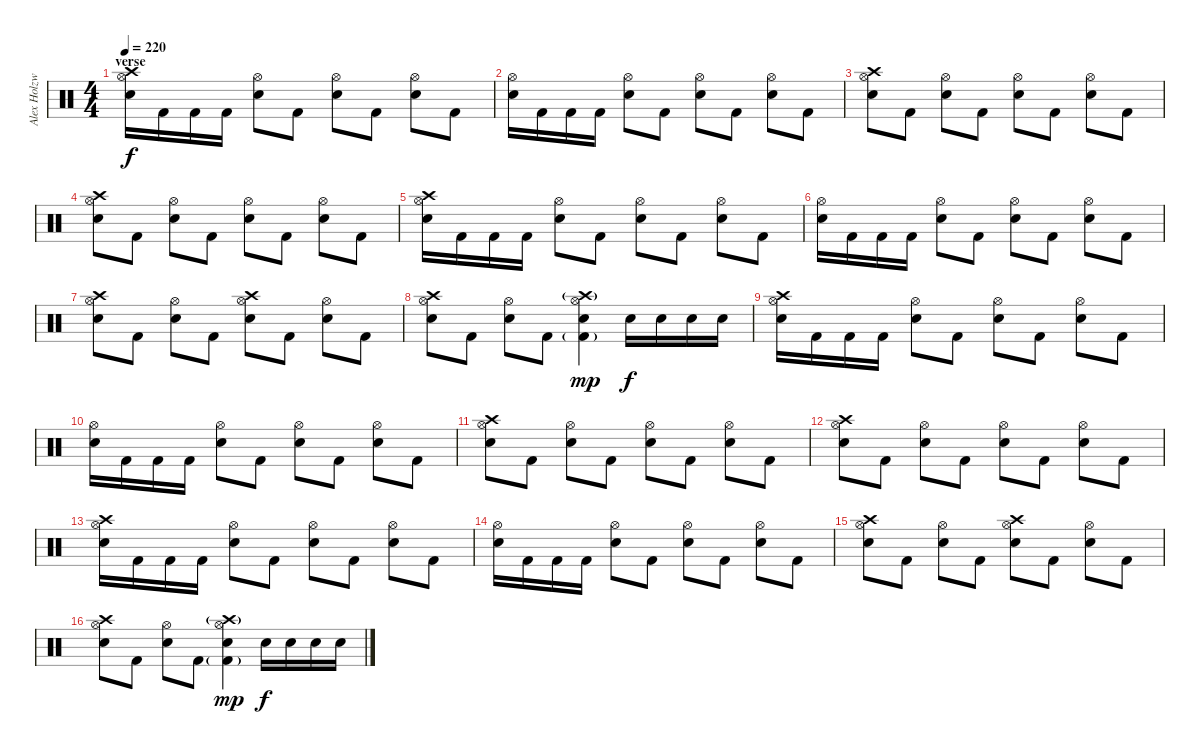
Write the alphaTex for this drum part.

\track ("Alex Holzwarth" "Alex Holzw") {instrument percussion}
\staff {score}
\articulation defaults
\ts (4 4)
\section ("" "verse")
\tempo 220
\clef neutral
\ks c
("Crash high (hit)" "Hi-Hat (open)" "Electric Snare (hit)").16{dy f} "Kick (hit) 2".16 "Kick (hit) 2".16 "Kick (hit) 2".16 ("Hi-Hat (open)" "Electric Snare (hit)").8 "Kick (hit) 2".8 ("Hi-Hat (open)" "Electric Snare (hit)").8 "Kick (hit) 2".8 ("Hi-Hat (open)" "Electric Snare (hit)").8 "Kick (hit) 2".8 |
("Hi-Hat (open)" "Electric Snare (hit)").16 "Kick (hit) 2".16 "Kick (hit) 2".16 "Kick (hit) 2".16 ("Hi-Hat (open)" "Electric Snare (hit)").8 "Kick (hit) 2".8 ("Hi-Hat (open)" "Electric Snare (hit)").8 "Kick (hit) 2".8 ("Hi-Hat (open)" "Electric Snare (hit)").8 "Kick (hit) 2".8 |
("Crash high (hit)" "Hi-Hat (open)" "Electric Snare (hit)").8 "Kick (hit) 2".8 ("Hi-Hat (open)" "Electric Snare (hit)").8 "Kick (hit) 2".8 ("Hi-Hat (open)" "Electric Snare (hit)").8 "Kick (hit) 2".8 ("Hi-Hat (open)" "Electric Snare (hit)").8 "Kick (hit) 2".8 |
("Crash high (hit)" "Hi-Hat (open)" "Electric Snare (hit)").8 "Kick (hit) 2".8 ("Hi-Hat (open)" "Electric Snare (hit)").8 "Kick (hit) 2".8 ("Hi-Hat (open)" "Electric Snare (hit)").8 "Kick (hit) 2".8 ("Hi-Hat (open)" "Electric Snare (hit)").8 "Kick (hit) 2".8 |
("Crash high (hit)" "Hi-Hat (open)" "Electric Snare (hit)").16 "Kick (hit) 2".16 "Kick (hit) 2".16 "Kick (hit) 2".16 ("Hi-Hat (open)" "Electric Snare (hit)").8 "Kick (hit) 2".8 ("Hi-Hat (open)" "Electric Snare (hit)").8 "Kick (hit) 2".8 ("Hi-Hat (open)" "Electric Snare (hit)").8 "Kick (hit) 2".8 |
("Hi-Hat (open)" "Electric Snare (hit)").16 "Kick (hit) 2".16 "Kick (hit) 2".16 "Kick (hit) 2".16 ("Hi-Hat (open)" "Electric Snare (hit)").8 "Kick (hit) 2".8 ("Hi-Hat (open)" "Electric Snare (hit)").8 "Kick (hit) 2".8 ("Hi-Hat (open)" "Electric Snare (hit)").8 "Kick (hit) 2".8 |
("Crash high (hit)" "Hi-Hat (open)" "Electric Snare (hit)").8 "Kick (hit) 2".8 ("Hi-Hat (open)" "Electric Snare (hit)").8 "Kick (hit) 2".8 ("Crash high (hit)" "Hi-Hat (open)" "Electric Snare (hit)").8 "Kick (hit) 2".8 ("Hi-Hat (open)" "Electric Snare (hit)").8 "Kick (hit) 2".8 |
("Crash high (hit)" "Hi-Hat (open)" "Electric Snare (hit)").8 "Kick (hit) 2".8 ("Hi-Hat (open)" "Electric Snare (hit)").8 "Kick (hit) 2".8 ("Crash high (hit)"{g} "Hi-Hat (open)" "Electric Snare (hit)" "Kick (hit) 2"{g}).4{dy mp} "Snare (hit) 2".16{dy f} "Snare (hit) 2".16 "Snare (hit) 2".16 "Snare (hit) 2".16 |
("Crash high (hit)" "Hi-Hat (open)" "Electric Snare (hit)").16 "Kick (hit) 2".16 "Kick (hit) 2".16 "Kick (hit) 2".16 ("Hi-Hat (open)" "Electric Snare (hit)").8 "Kick (hit) 2".8 ("Hi-Hat (open)" "Electric Snare (hit)").8 "Kick (hit) 2".8 ("Hi-Hat (open)" "Electric Snare (hit)").8 "Kick (hit) 2".8 |
("Hi-Hat (open)" "Electric Snare (hit)").16 "Kick (hit) 2".16 "Kick (hit) 2".16 "Kick (hit) 2".16 ("Hi-Hat (open)" "Electric Snare (hit)").8 "Kick (hit) 2".8 ("Hi-Hat (open)" "Electric Snare (hit)").8 "Kick (hit) 2".8 ("Hi-Hat (open)" "Electric Snare (hit)").8 "Kick (hit) 2".8 |
("Crash high (hit)" "Hi-Hat (open)" "Electric Snare (hit)").8 "Kick (hit) 2".8 ("Hi-Hat (open)" "Electric Snare (hit)").8 "Kick (hit) 2".8 ("Hi-Hat (open)" "Electric Snare (hit)").8 "Kick (hit) 2".8 ("Hi-Hat (open)" "Electric Snare (hit)").8 "Kick (hit) 2".8 |
("Crash high (hit)" "Hi-Hat (open)" "Electric Snare (hit)").8 "Kick (hit) 2".8 ("Hi-Hat (open)" "Electric Snare (hit)").8 "Kick (hit) 2".8 ("Hi-Hat (open)" "Electric Snare (hit)").8 "Kick (hit) 2".8 ("Hi-Hat (open)" "Electric Snare (hit)").8 "Kick (hit) 2".8 |
("Crash high (hit)" "Hi-Hat (open)" "Electric Snare (hit)").16 "Kick (hit) 2".16 "Kick (hit) 2".16 "Kick (hit) 2".16 ("Hi-Hat (open)" "Electric Snare (hit)").8 "Kick (hit) 2".8 ("Hi-Hat (open)" "Electric Snare (hit)").8 "Kick (hit) 2".8 ("Hi-Hat (open)" "Electric Snare (hit)").8 "Kick (hit) 2".8 |
("Hi-Hat (open)" "Electric Snare (hit)").16 "Kick (hit) 2".16 "Kick (hit) 2".16 "Kick (hit) 2".16 ("Hi-Hat (open)" "Electric Snare (hit)").8 "Kick (hit) 2".8 ("Hi-Hat (open)" "Electric Snare (hit)").8 "Kick (hit) 2".8 ("Hi-Hat (open)" "Electric Snare (hit)").8 "Kick (hit) 2".8 |
("Crash high (hit)" "Hi-Hat (open)" "Electric Snare (hit)").8 "Kick (hit) 2".8 ("Hi-Hat (open)" "Electric Snare (hit)").8 "Kick (hit) 2".8 ("Crash high (hit)" "Hi-Hat (open)" "Electric Snare (hit)").8 "Kick (hit) 2".8 ("Hi-Hat (open)" "Electric Snare (hit)").8 "Kick (hit) 2".8 |
("Crash high (hit)" "Hi-Hat (open)" "Electric Snare (hit)").8 "Kick (hit) 2".8 ("Hi-Hat (open)" "Electric Snare (hit)").8 "Kick (hit) 2".8 ("Crash high (hit)"{g} "Hi-Hat (open)" "Electric Snare (hit)" "Kick (hit) 2"{g}).4{dy mp} "Snare (hit) 2".16{dy f} "Snare (hit) 2".16 "Snare (hit) 2".16 "Snare (hit) 2".16
